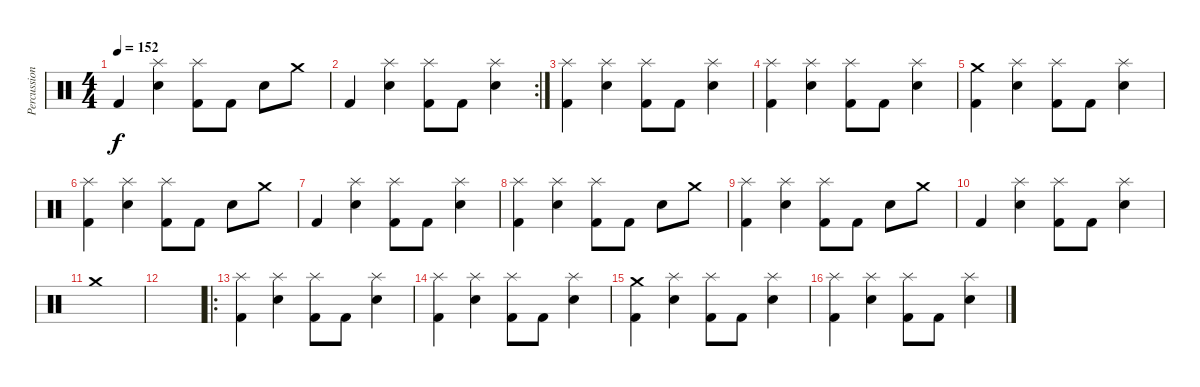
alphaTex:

\track ("Percussion" "Percussion") {instrument percussion}
\staff {score}
\articulation defaults
\ts (4 4)
\tempo 152
\clef neutral
\ks c "Kick (hit) 2".4{dy f}
("Splash (hit)" "Snare (hit) 2").4 ("Splash (hit)" "Kick (hit) 2").8 "Kick (hit) 2".8 "Snare (hit) 2".8 "Crash medium (hit)".8 |
\rc 2 "Kick (hit) 2".4
("Splash (hit)" "Snare (hit) 2").4 ("Splash (hit)" "Kick (hit) 2").8 "Kick (hit) 2".8 ("Splash (hit)" "Snare (hit) 2").4 |
("Splash (hit)" "Kick (hit) 2").4 ("Splash (hit)" "Snare (hit) 2").4 ("Splash (hit)" "Kick (hit) 2").8 "Kick (hit) 2".8 ("Splash (hit)" "Snare (hit) 2").4 |
("Splash (hit)" "Kick (hit) 2").4 ("Splash (hit)" "Snare (hit) 2").4 ("Splash (hit)" "Kick (hit) 2").8 "Kick (hit) 2".8 ("Splash (hit)" "Snare (hit) 2").4 |
("Crash medium (hit)" "Kick (hit) 2").4 ("Splash (hit)" "Snare (hit) 2").4 ("Splash (hit)" "Kick (hit) 2").8 "Kick (hit) 2".8 ("Splash (hit)" "Snare (hit) 2").4 |
("Splash (hit)" "Kick (hit) 2").4 ("Splash (hit)" "Snare (hit) 2").4 ("Splash (hit)" "Kick (hit) 2").8 "Kick (hit) 2".8 "Snare (hit) 2".8 "Crash medium (hit)".8 |
"Kick (hit) 2".4 ("Splash (hit)" "Snare (hit) 2").4 ("Splash (hit)" "Kick (hit) 2").8 "Kick (hit) 2".8 ("Splash (hit)" "Snare (hit) 2").4 |
("Splash (hit)" "Kick (hit) 2").4 ("Splash (hit)" "Snare (hit) 2").4 ("Splash (hit)" "Kick (hit) 2").8 "Kick (hit) 2".8 "Snare (hit) 2".8 "Crash medium (hit)".8 |
("Splash (hit)" "Kick (hit) 2").4 ("Splash (hit)" "Snare (hit) 2").4 ("Splash (hit)" "Kick (hit) 2").8 "Kick (hit) 2".8 "Snare (hit) 2".8 "Crash medium (hit)".8 |
"Kick (hit) 2".4 ("Splash (hit)" "Snare (hit) 2").4 ("Splash (hit)" "Kick (hit) 2").8 "Kick (hit) 2".8 ("Splash (hit)" "Snare (hit) 2").4 |
"Crash medium (hit)".1 |
|
\ro
("Splash (hit)" "Kick (hit) 2").4 ("Splash (hit)" "Snare (hit) 2").4 ("Splash (hit)" "Kick (hit) 2").8 "Kick (hit) 2".8 ("Splash (hit)" "Snare (hit) 2").4 |
("Splash (hit)" "Kick (hit) 2").4 ("Splash (hit)" "Snare (hit) 2").4 ("Splash (hit)" "Kick (hit) 2").8 "Kick (hit) 2".8 ("Splash (hit)" "Snare (hit) 2").4 |
("Crash medium (hit)" "Kick (hit) 2").4 ("Splash (hit)" "Snare (hit) 2").4 ("Splash (hit)" "Kick (hit) 2").8 "Kick (hit) 2".8 ("Splash (hit)" "Snare (hit) 2").4 |
("Splash (hit)" "Kick (hit) 2").4 ("Splash (hit)" "Snare (hit) 2").4 ("Splash (hit)" "Kick (hit) 2").8 "Kick (hit) 2".8 ("Splash (hit)" "Snare (hit) 2").4
